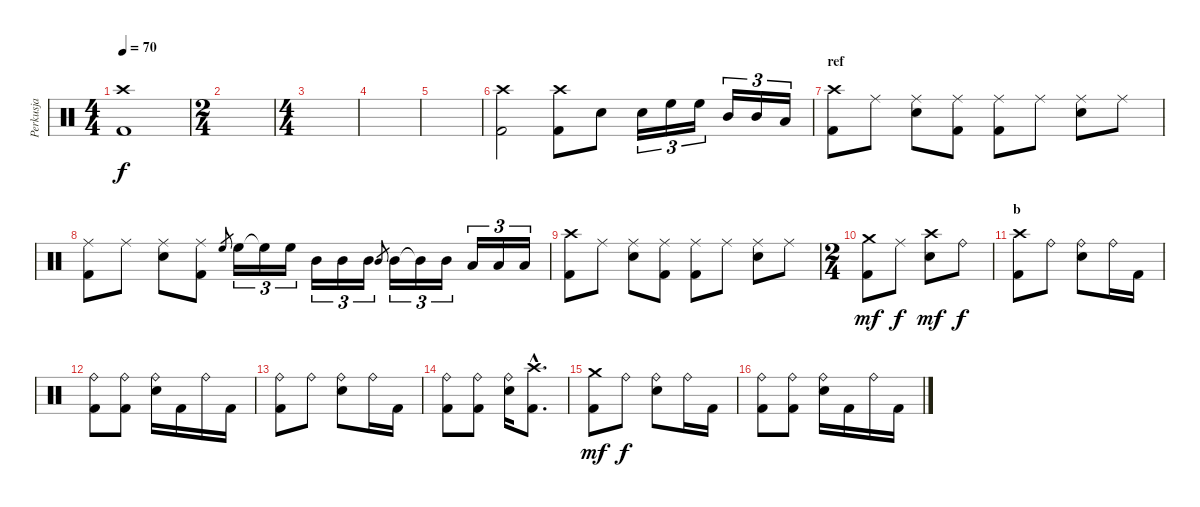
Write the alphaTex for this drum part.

\track ("Perkusja" "Perkusja") {instrument percussion}
\staff {score}
\articulation defaults
\ts (4 4)
\tempo 70
\clef neutral
\ks c
("Crash high (hit)" "Kick (hit) 2").1{dy f} |
\ts (2 4)
|
\ts (4 4)
|
|
|
("Crash high (hit)" "Kick (hit) 2").2 ("Crash high (hit)" "Kick (hit) 2").8 "Snare (hit) 2".8 "Snare (hit) 2".16{tu (3 2)} "High Floor Tom (hit)".16{tu (3 2)} "High Floor Tom (hit)".16{tu (3 2)} "Mid Tom (hit)".16{tu (3 2)} "Mid Tom (hit)".16{tu (3 2)} "Low Tom (hit)".16{tu (3 2)} |
\section ("" "ref")
("Crash high (hit)" "Kick (hit) 2").8 "Ride (middle)".8 ("Ride (middle)" "Snare (hit) 2").8 ("Ride (middle)" "Kick (hit) 2").8 ("Ride (middle)" "Kick (hit) 2").8 "Ride (middle)".8 ("Ride (middle)" "Snare (hit) 2").8 "Ride (middle)".8 |
("Ride (middle)" "Kick (hit) 2").8 "Ride (middle)".8 ("Ride (middle)" "Snare (hit) 2").8 ("Ride (middle)" "Kick (hit) 2").8 "High Floor Tom (hit)".8{gr} "High Floor Tom (hit)".16{tu (3 2)} "High Floor Tom (hit)"{t}.16{tu (3 2)} "High Floor Tom (hit)".16{tu (3 2)} "Mid Tom (hit)".16{tu (3 2)} "Mid Tom (hit)".16{tu (3 2)} "Mid Tom (hit)".16{tu (3 2)} "Mid Tom (hit)".8{gr} "Mid Tom (hit)".16{tu (3 2)} "Mid Tom (hit)"{t}.16{tu (3 2)} "Mid Tom (hit)".16{tu (3 2)} "Low Tom (hit)".16{tu (3 2)} "Low Tom (hit)".16{tu (3 2)} "Low Tom (hit)".16{tu (3 2)} |
("Crash high (hit)" "Kick (hit) 2").8 "Ride (middle)".8 ("Ride (middle)" "Snare (hit) 2").8 ("Ride (middle)" "Kick (hit) 2").8 ("Ride (middle)" "Kick (hit) 2").8 "Ride (middle)".8 ("Ride (middle)" "Snare (hit) 2").8 "Ride (middle)".8 |
\ts (2 4)
("Crash medium (hit)" "Kick (hit) 2").8{dy mf} "Ride (middle)".8{dy f} ("Crash high (hit)" "Snare (hit) 2").8{dy mf} "Ride (bell)".8{dy f} |
\section ("" "b")
("Crash high (hit)" "Kick (hit) 2").8 "Ride (bell)".8 ("Ride (bell)" "Snare (hit) 2").8 "Ride (bell)".16 "Kick (hit) 2".16 |
("Ride (bell)" "Kick (hit) 2").8 ("Ride (bell)" "Kick (hit) 2").8 ("Ride (bell)" "Snare (hit) 2").16 "Kick (hit) 2".16 "Ride (bell)".16 "Kick (hit) 2".16 |
("Ride (bell)" "Kick (hit) 2").8 "Ride (bell)".8 ("Ride (bell)" "Snare (hit) 2").8 "Ride (bell)".16 "Kick (hit) 2".16 |
("Ride (bell)" "Kick (hit) 2").8 ("Ride (bell)" "Kick (hit) 2").8 ("Ride (bell)" "Snare (hit) 2").16 ("Crash high (hit)"{hac} "Kick (hit) 2"{hac}).8{d} |
("Crash medium (hit)" "Kick (hit) 2").8{dy mf} "Ride (bell)".8{dy f} ("Ride (bell)" "Snare (hit) 2").8 "Ride (bell)".16 "Kick (hit) 2".16 |
("Ride (bell)" "Kick (hit) 2").8 ("Ride (bell)" "Kick (hit) 2").8 ("Ride (bell)" "Snare (hit) 2").16 "Kick (hit) 2".16 "Ride (bell)".16 "Kick (hit) 2".16
